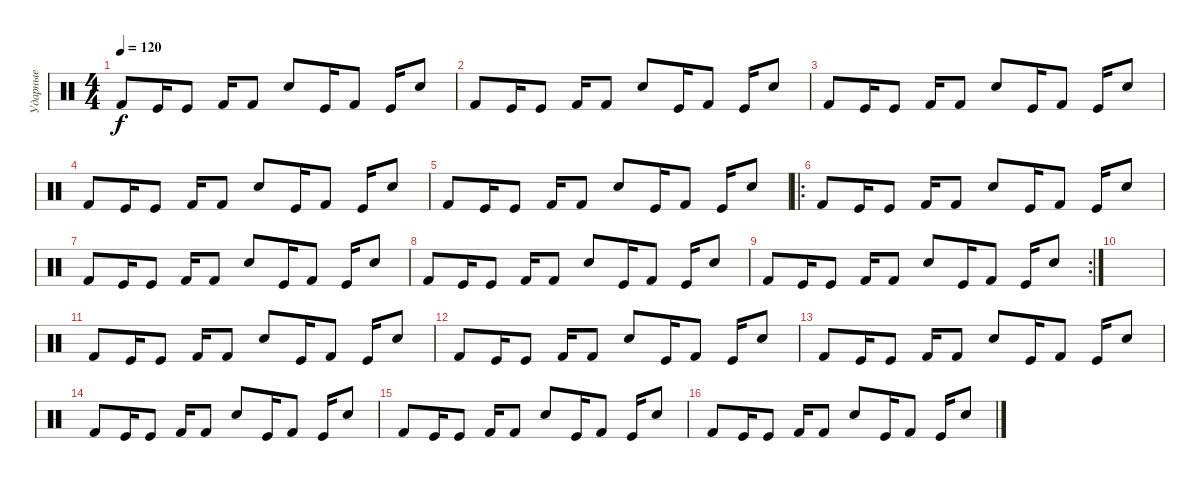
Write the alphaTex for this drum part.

\track ("Ударные" "Ударные") {instrument percussion}
\staff {score}
\articulation defaults
\ts (4 4)
\tempo 120
\clef neutral
\ks c "Kick (hit) 2".8{dy f} "Kick (hit)".16 "Kick (hit)".8 "Kick (hit) 2".16 "Kick (hit) 2".8 "Hand Clap (hit)".8 "Kick (hit)".16 "Kick (hit) 2".8 "Kick (hit)".16 "Snare (hit) 2".8
|
"Kick (hit) 2".8 "Kick (hit)".16 "Kick (hit)".8 "Kick (hit) 2".16 "Kick (hit) 2".8 "Hand Clap (hit)".8 "Kick (hit)".16 "Kick (hit) 2".8 "Kick (hit)".16 "Snare (hit) 2".8 |
"Kick (hit) 2".8 "Kick (hit)".16 "Kick (hit)".8 "Kick (hit) 2".16 "Kick (hit) 2".8 "Hand Clap (hit)".8 "Kick (hit)".16 "Kick (hit) 2".8 "Kick (hit)".16 "Snare (hit) 2".8 |
"Kick (hit) 2".8 "Kick (hit)".16 "Kick (hit)".8 "Kick (hit) 2".16 "Kick (hit) 2".8 "Hand Clap (hit)".8 "Kick (hit)".16 "Kick (hit) 2".8 "Kick (hit)".16 "Snare (hit) 2".8 |
"Kick (hit) 2".8 "Kick (hit)".16 "Kick (hit)".8 "Kick (hit) 2".16 "Kick (hit) 2".8 "Hand Clap (hit)".8 "Kick (hit)".16 "Kick (hit) 2".8 "Kick (hit)".16 "Snare (hit) 2".8 |
\ro "Kick (hit) 2".8 "Kick (hit)".16 "Kick (hit)".8 "Kick (hit) 2".16 "Kick (hit) 2".8 "Hand Clap (hit)".8 "Kick (hit)".16 "Kick (hit) 2".8 "Kick (hit)".16 "Snare (hit) 2".8
|
"Kick (hit) 2".8 "Kick (hit)".16 "Kick (hit)".8 "Kick (hit) 2".16 "Kick (hit) 2".8 "Hand Clap (hit)".8 "Kick (hit)".16 "Kick (hit) 2".8 "Kick (hit)".16 "Snare (hit) 2".8 |
"Kick (hit) 2".8 "Kick (hit)".16 "Kick (hit)".8 "Kick (hit) 2".16 "Kick (hit) 2".8 "Hand Clap (hit)".8 "Kick (hit)".16 "Kick (hit) 2".8 "Kick (hit)".16 "Snare (hit) 2".8 |
\rc 2 "Kick (hit) 2".8 "Kick (hit)".16 "Kick (hit)".8 "Kick (hit) 2".16 "Kick (hit) 2".8 "Hand Clap (hit)".8 "Kick (hit)".16 "Kick (hit) 2".8 "Kick (hit)".16 "Snare (hit) 2".8
|
|
"Kick (hit) 2".8 "Kick (hit)".16 "Kick (hit)".8 "Kick (hit) 2".16 "Kick (hit) 2".8 "Hand Clap (hit)".8 "Kick (hit)".16 "Kick (hit) 2".8 "Kick (hit)".16 "Snare (hit) 2".8 |
"Kick (hit) 2".8 "Kick (hit)".16 "Kick (hit)".8 "Kick (hit) 2".16 "Kick (hit) 2".8 "Hand Clap (hit)".8 "Kick (hit)".16 "Kick (hit) 2".8 "Kick (hit)".16 "Snare (hit) 2".8 |
"Kick (hit) 2".8 "Kick (hit)".16 "Kick (hit)".8 "Kick (hit) 2".16 "Kick (hit) 2".8 "Hand Clap (hit)".8 "Kick (hit)".16 "Kick (hit) 2".8 "Kick (hit)".16 "Snare (hit) 2".8 |
"Kick (hit) 2".8 "Kick (hit)".16 "Kick (hit)".8 "Kick (hit) 2".16 "Kick (hit) 2".8 "Hand Clap (hit)".8 "Kick (hit)".16 "Kick (hit) 2".8 "Kick (hit)".16 "Snare (hit) 2".8 |
"Kick (hit) 2".8 "Kick (hit)".16 "Kick (hit)".8 "Kick (hit) 2".16 "Kick (hit) 2".8 "Hand Clap (hit)".8 "Kick (hit)".16 "Kick (hit) 2".8 "Kick (hit)".16 "Snare (hit) 2".8 |
"Kick (hit) 2".8 "Kick (hit)".16 "Kick (hit)".8 "Kick (hit) 2".16 "Kick (hit) 2".8 "Hand Clap (hit)".8 "Kick (hit)".16 "Kick (hit) 2".8 "Kick (hit)".16 "Snare (hit) 2".8
